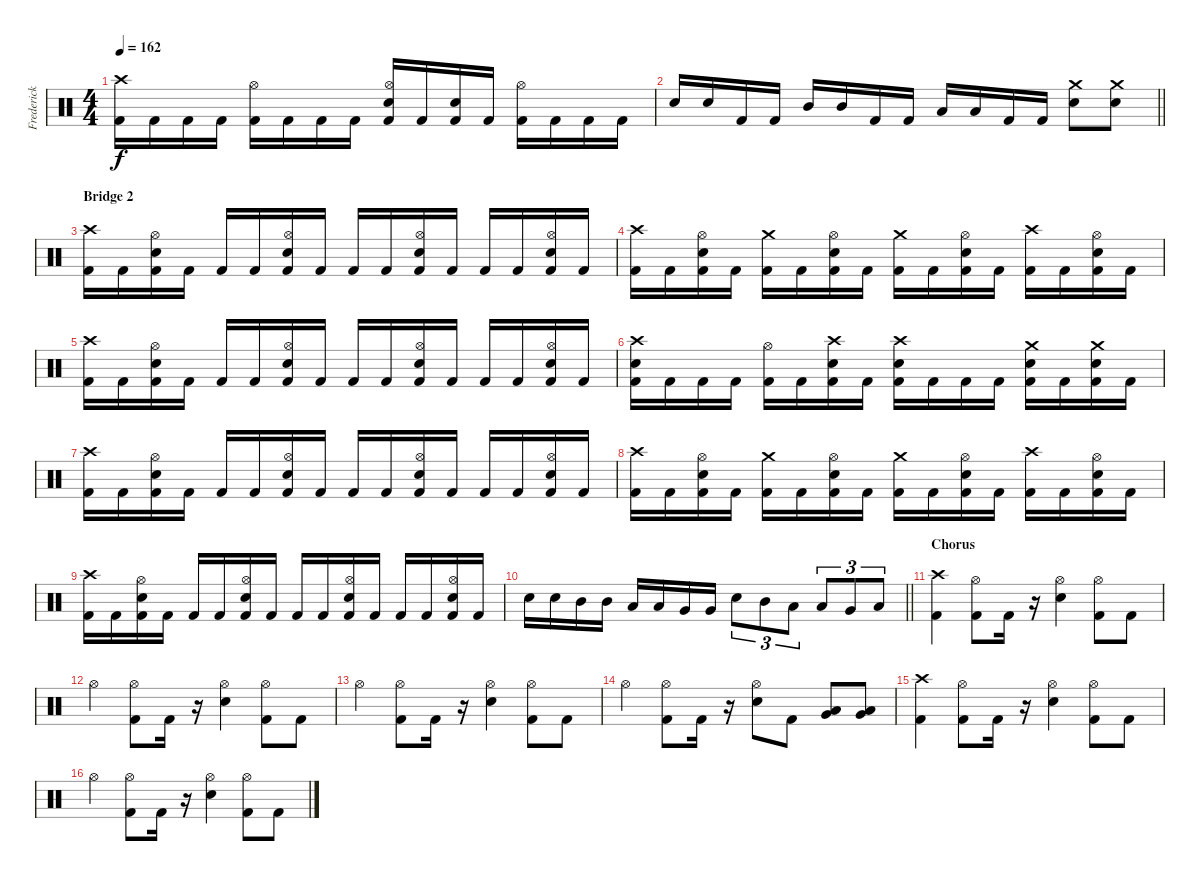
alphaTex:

\track ("Frederick Ehmke" "Frederick ") {instrument percussion}
\staff {score}
\articulation defaults
\ts (4 4)
\tempo 162
\clef neutral
\ks c
("Crash high (hit)" "Kick (hit) 2").16{dy f} "Kick (hit) 2".16 "Kick (hit) 2".16 "Kick (hit) 2".16 ("Hi-Hat (open)" "Kick (hit) 2").16 "Kick (hit) 2".16 "Kick (hit) 2".16 "Kick (hit) 2".16 ("Electric Snare (hit)" "Hi-Hat (open)" "Kick (hit) 2").16 "Kick (hit) 2".16 ("Electric Snare (hit)" "Kick (hit) 2").16 "Kick (hit) 2".16 ("Hi-Hat (open)" "Kick (hit) 2").16 "Kick (hit) 2".16 "Kick (hit) 2".16 "Kick (hit) 2".16 |
\barLineRight lightlight "Electric Snare (hit)".16 "Electric Snare (hit)".16 "Kick (hit) 2".16 "Kick (hit) 2".16 "Mid Tom (hit)".16 "Mid Tom (hit)".16 "Kick (hit) 2".16 "Kick (hit) 2".16 "Low Tom (hit)".16 "Low Tom (hit)".16 "Kick (hit) 2".16 "Kick (hit) 2".16
("Electric Snare (hit)" "Crash medium (hit)").8 ("Electric Snare (hit)" "Crash medium (hit)").8 |
\section ("" "Bridge 2")
("Crash high (hit)" "Kick (hit) 2").16 "Kick (hit) 2".16 ("Electric Snare (hit)" "Hi-Hat (open)" "Kick (hit) 2").16 "Kick (hit) 2".16 "Kick (hit) 2".16 "Kick (hit) 2".16 ("Electric Snare (hit)" "Hi-Hat (open)" "Kick (hit) 2").16 "Kick (hit) 2".16 "Kick (hit) 2".16 "Kick (hit) 2".16 ("Electric Snare (hit)" "Hi-Hat (open)" "Kick (hit) 2").16 "Kick (hit) 2".16 "Kick (hit) 2".16 "Kick (hit) 2".16 ("Electric Snare (hit)" "Hi-Hat (open)" "Kick (hit) 2").16 "Kick (hit) 2".16 |
("Crash high (hit)" "Kick (hit) 2").16 "Kick (hit) 2".16 ("Electric Snare (hit)" "Hi-Hat (open)" "Kick (hit) 2").16 "Kick (hit) 2".16 ("Crash medium (hit)" "Kick (hit) 2").16 "Kick (hit) 2".16 ("Electric Snare (hit)" "Hi-Hat (open)" "Kick (hit) 2").16 "Kick (hit) 2".16 ("Crash medium (hit)" "Kick (hit) 2").16 "Kick (hit) 2".16 ("Electric Snare (hit)" "Hi-Hat (open)" "Kick (hit) 2").16 "Kick (hit) 2".16 ("Crash high (hit)" "Kick (hit) 2").16 "Kick (hit) 2".16 ("Electric Snare (hit)" "Hi-Hat (open)" "Kick (hit) 2").16 "Kick (hit) 2".16 |
("Crash high (hit)" "Kick (hit) 2").16 "Kick (hit) 2".16 ("Electric Snare (hit)" "Hi-Hat (open)" "Kick (hit) 2").16 "Kick (hit) 2".16 "Kick (hit) 2".16 "Kick (hit) 2".16 ("Electric Snare (hit)" "Hi-Hat (open)" "Kick (hit) 2").16 "Kick (hit) 2".16 "Kick (hit) 2".16 "Kick (hit) 2".16 ("Electric Snare (hit)" "Hi-Hat (open)" "Kick (hit) 2").16 "Kick (hit) 2".16 "Kick (hit) 2".16 "Kick (hit) 2".16 ("Electric Snare (hit)" "Hi-Hat (open)" "Kick (hit) 2").16 "Kick (hit) 2".16 |
("Electric Snare (hit)" "Crash high (hit)" "Kick (hit) 2").16 "Kick (hit) 2".16 "Kick (hit) 2".16 "Kick (hit) 2".16 ("Hi-Hat (open)" "Kick (hit) 2").16 "Kick (hit) 2".16 ("Electric Snare (hit)" "Crash high (hit)" "Kick (hit) 2").16 "Kick (hit) 2".16 ("Electric Snare (hit)" "Crash high (hit)" "Kick (hit) 2").16 "Kick (hit) 2".16 "Kick (hit) 2".16 "Kick (hit) 2".16 ("Electric Snare (hit)" "Crash medium (hit)" "Kick (hit) 2").16 "Kick (hit) 2".16 ("Electric Snare (hit)" "Crash medium (hit)" "Kick (hit) 2").16 "Kick (hit) 2".16 |
("Crash high (hit)" "Kick (hit) 2").16 "Kick (hit) 2".16 ("Electric Snare (hit)" "Hi-Hat (open)" "Kick (hit) 2").16 "Kick (hit) 2".16 "Kick (hit) 2".16 "Kick (hit) 2".16 ("Electric Snare (hit)" "Hi-Hat (open)" "Kick (hit) 2").16 "Kick (hit) 2".16 "Kick (hit) 2".16 "Kick (hit) 2".16 ("Electric Snare (hit)" "Hi-Hat (open)" "Kick (hit) 2").16 "Kick (hit) 2".16 "Kick (hit) 2".16 "Kick (hit) 2".16 ("Electric Snare (hit)" "Hi-Hat (open)" "Kick (hit) 2").16 "Kick (hit) 2".16 |
("Crash high (hit)" "Kick (hit) 2").16 "Kick (hit) 2".16 ("Electric Snare (hit)" "Hi-Hat (open)" "Kick (hit) 2").16 "Kick (hit) 2".16 ("Crash medium (hit)" "Kick (hit) 2").16 "Kick (hit) 2".16 ("Electric Snare (hit)" "Hi-Hat (open)" "Kick (hit) 2").16 "Kick (hit) 2".16 ("Crash medium (hit)" "Kick (hit) 2").16 "Kick (hit) 2".16 ("Electric Snare (hit)" "Hi-Hat (open)" "Kick (hit) 2").16 "Kick (hit) 2".16 ("Crash high (hit)" "Kick (hit) 2").16 "Kick (hit) 2".16 ("Electric Snare (hit)" "Hi-Hat (open)" "Kick (hit) 2").16 "Kick (hit) 2".16 |
("Crash high (hit)" "Kick (hit) 2").16 "Kick (hit) 2".16 ("Electric Snare (hit)" "Hi-Hat (open)" "Kick (hit) 2").16 "Kick (hit) 2".16 "Kick (hit) 2".16 "Kick (hit) 2".16 ("Electric Snare (hit)" "Hi-Hat (open)" "Kick (hit) 2").16 "Kick (hit) 2".16 "Kick (hit) 2".16 "Kick (hit) 2".16 ("Electric Snare (hit)" "Hi-Hat (open)" "Kick (hit) 2").16 "Kick (hit) 2".16 "Kick (hit) 2".16 "Kick (hit) 2".16 ("Electric Snare (hit)" "Hi-Hat (open)" "Kick (hit) 2").16 "Kick (hit) 2".16 |
\barLineRight lightlight "Electric Snare (hit)".16 "Electric Snare (hit)".16 "Mid Tom (hit)".16 "Mid Tom (hit)".16 "Low Tom (hit)".16 "Low Tom (hit)".16 "Very Low Tom (hit)".16 "Very Low Tom (hit)".16 "Electric Snare (hit)".8{tu (3 2)} "Mid Tom (hit)".8{tu (3 2)} "Low Tom (hit)".8{tu (3 2)} "Low Tom (hit)".8{tu (3 2)} "Very Low Tom (hit)".8{tu (3 2)} "Low Floor Tom (hit)".8{tu (3 2)}
|
\section ("" "Chorus")
("Crash high (hit)" "Kick (hit) 2").4 ("Hi-Hat (open)" "Kick (hit) 2").8 "Kick (hit) 2".16 r.16 ("Electric Snare (hit)" "Hi-Hat (open)").4 ("Hi-Hat (open)" "Kick (hit) 2").8 "Kick (hit) 2".8 |
"Hi-Hat (open)".4 ("Hi-Hat (open)" "Kick (hit) 2").8 "Kick (hit) 2".16 r.16 ("Electric Snare (hit)" "Hi-Hat (open)").4 ("Hi-Hat (open)" "Kick (hit) 2").8 "Kick (hit) 2".8 |
"Hi-Hat (open)".4 ("Hi-Hat (open)" "Kick (hit) 2").8 "Kick (hit) 2".16 r.16 ("Electric Snare (hit)" "Hi-Hat (open)").4 ("Hi-Hat (open)" "Kick (hit) 2").8 "Kick (hit) 2".8 |
"Hi-Hat (open)".4 ("Hi-Hat (open)" "Kick (hit) 2").8 "Kick (hit) 2".16 r.16 ("Electric Snare (hit)" "Hi-Hat (open)").8 "Kick (hit) 2".8 ("Very Low Tom (hit)" "Low Floor Tom (hit)").8 ("Very Low Tom (hit)" "Low Floor Tom (hit)").8 |
("Crash high (hit)" "Kick (hit) 2").4 ("Hi-Hat (open)" "Kick (hit) 2").8 "Kick (hit) 2".16 r.16 ("Electric Snare (hit)" "Hi-Hat (open)").4 ("Hi-Hat (open)" "Kick (hit) 2").8 "Kick (hit) 2".8 |
"Hi-Hat (open)".4 ("Hi-Hat (open)" "Kick (hit) 2").8 "Kick (hit) 2".16 r.16 ("Electric Snare (hit)" "Hi-Hat (open)").4 ("Hi-Hat (open)" "Kick (hit) 2").8 "Kick (hit) 2".8
